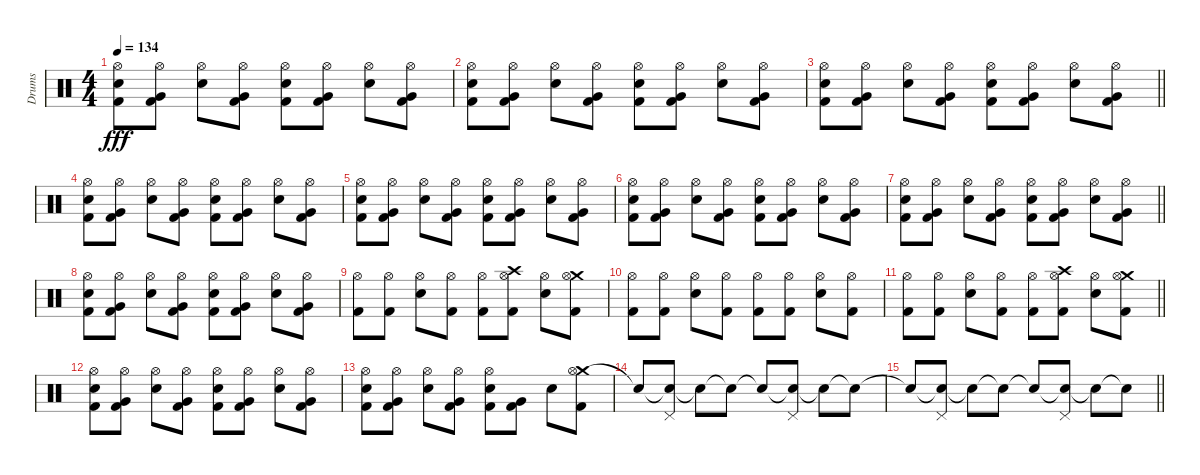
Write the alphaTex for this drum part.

\track ("Drums" "Drums") {instrument percussion}
\staff {score}
\articulation defaults
\ts (4 4)
\tempo 134
\clef neutral
\ks c
("Hi-Hat (open)" "Electric Snare (hit)" "Kick (hit) 2").8{dy fff} ("Hi-Hat (open)" "Very Low Tom (hit)" "Kick (hit) 2").8 ("Hi-Hat (open)" "Electric Snare (hit)").8 ("Hi-Hat (open)" "Very Low Tom (hit)" "Kick (hit) 2").8 ("Hi-Hat (open)" "Electric Snare (hit)" "Kick (hit) 2").8 ("Hi-Hat (open)" "Very Low Tom (hit)" "Kick (hit) 2").8 ("Hi-Hat (open)" "Electric Snare (hit)").8 ("Hi-Hat (open)" "Very Low Tom (hit)" "Kick (hit) 2").8 |
("Hi-Hat (open)" "Electric Snare (hit)" "Kick (hit) 2").8 ("Hi-Hat (open)" "Very Low Tom (hit)" "Kick (hit) 2").8 ("Hi-Hat (open)" "Electric Snare (hit)").8 ("Hi-Hat (open)" "Very Low Tom (hit)" "Kick (hit) 2").8 ("Hi-Hat (open)" "Electric Snare (hit)" "Kick (hit) 2").8 ("Hi-Hat (open)" "Very Low Tom (hit)" "Kick (hit) 2").8 ("Hi-Hat (open)" "Electric Snare (hit)").8 ("Hi-Hat (open)" "Very Low Tom (hit)" "Kick (hit) 2").8 |
\barLineRight lightlight
("Hi-Hat (open)" "Electric Snare (hit)" "Kick (hit) 2").8 ("Hi-Hat (open)" "Very Low Tom (hit)" "Kick (hit) 2").8 ("Hi-Hat (open)" "Electric Snare (hit)").8 ("Hi-Hat (open)" "Very Low Tom (hit)" "Kick (hit) 2").8 ("Hi-Hat (open)" "Electric Snare (hit)" "Kick (hit) 2").8 ("Hi-Hat (open)" "Very Low Tom (hit)" "Kick (hit) 2").8 ("Hi-Hat (open)" "Electric Snare (hit)").8 ("Hi-Hat (open)" "Very Low Tom (hit)" "Kick (hit) 2").8 |
("Hi-Hat (open)" "Electric Snare (hit)" "Kick (hit) 2").8{volume 7} ("Hi-Hat (open)" "Very Low Tom (hit)" "Kick (hit) 2").8 ("Hi-Hat (open)" "Electric Snare (hit)").8 ("Hi-Hat (open)" "Very Low Tom (hit)" "Kick (hit) 2").8 ("Hi-Hat (open)" "Electric Snare (hit)" "Kick (hit) 2").8 ("Hi-Hat (open)" "Very Low Tom (hit)" "Kick (hit) 2").8 ("Hi-Hat (open)" "Electric Snare (hit)").8 ("Hi-Hat (open)" "Very Low Tom (hit)" "Kick (hit) 2").8 |
("Hi-Hat (open)" "Electric Snare (hit)" "Kick (hit) 2").8 ("Hi-Hat (open)" "Very Low Tom (hit)" "Kick (hit) 2").8 ("Hi-Hat (open)" "Electric Snare (hit)").8 ("Hi-Hat (open)" "Very Low Tom (hit)" "Kick (hit) 2").8 ("Hi-Hat (open)" "Electric Snare (hit)" "Kick (hit) 2").8 ("Hi-Hat (open)" "Very Low Tom (hit)" "Kick (hit) 2").8 ("Hi-Hat (open)" "Electric Snare (hit)").8 ("Hi-Hat (open)" "Very Low Tom (hit)" "Kick (hit) 2").8 |
("Hi-Hat (open)" "Electric Snare (hit)" "Kick (hit) 2").8 ("Hi-Hat (open)" "Very Low Tom (hit)" "Kick (hit) 2").8 ("Hi-Hat (open)" "Electric Snare (hit)").8 ("Hi-Hat (open)" "Very Low Tom (hit)" "Kick (hit) 2").8 ("Hi-Hat (open)" "Electric Snare (hit)" "Kick (hit) 2").8 ("Hi-Hat (open)" "Very Low Tom (hit)" "Kick (hit) 2").8 ("Hi-Hat (open)" "Electric Snare (hit)").8 ("Hi-Hat (open)" "Very Low Tom (hit)" "Kick (hit) 2").8 |
\barLineRight lightlight
("Hi-Hat (open)" "Electric Snare (hit)" "Kick (hit) 2").8 ("Hi-Hat (open)" "Very Low Tom (hit)" "Kick (hit) 2").8 ("Hi-Hat (open)" "Electric Snare (hit)").8 ("Hi-Hat (open)" "Very Low Tom (hit)" "Kick (hit) 2").8 ("Hi-Hat (open)" "Electric Snare (hit)" "Kick (hit) 2").8 ("Hi-Hat (open)" "Very Low Tom (hit)" "Kick (hit) 2").8 ("Hi-Hat (open)" "Electric Snare (hit)").8 ("Hi-Hat (open)" "Very Low Tom (hit)" "Kick (hit) 2").8 |
("Hi-Hat (open)" "Electric Snare (hit)" "Kick (hit) 2").8{volume 3} ("Hi-Hat (open)" "Very Low Tom (hit)" "Kick (hit) 2").8 ("Hi-Hat (open)" "Electric Snare (hit)").8 ("Hi-Hat (open)" "Very Low Tom (hit)" "Kick (hit) 2").8 ("Hi-Hat (open)" "Electric Snare (hit)" "Kick (hit) 2").8 ("Hi-Hat (open)" "Very Low Tom (hit)" "Kick (hit) 2").8 ("Hi-Hat (open)" "Electric Snare (hit)").8 ("Hi-Hat (open)" "Very Low Tom (hit)" "Kick (hit) 2").8 |
("Hi-Hat (open)" "Kick (hit) 2").8 ("Hi-Hat (open)" "Kick (hit) 2").8 ("Hi-Hat (open)" "Electric Snare (hit)").8 ("Hi-Hat (open)" "Kick (hit) 2").8 ("Hi-Hat (open)" "Kick (hit) 2").8 ("Crash high (hit)" "Hi-Hat (open)" "Kick (hit) 2").8 ("Hi-Hat (open)" "Electric Snare (hit)").8 ("Crash medium (hit)" "Hi-Hat (open)" "Kick (hit) 2").8 |
("Hi-Hat (open)" "Kick (hit) 2").8 ("Hi-Hat (open)" "Kick (hit) 2").8 ("Hi-Hat (open)" "Electric Snare (hit)").8 ("Hi-Hat (open)" "Kick (hit) 2").8 ("Hi-Hat (open)" "Kick (hit) 2").8 ("Hi-Hat (open)" "Kick (hit) 2").8 ("Hi-Hat (open)" "Electric Snare (hit)").8 ("Hi-Hat (open)" "Kick (hit) 2").8 |
\barLineRight lightlight
("Hi-Hat (open)" "Kick (hit) 2").8 ("Hi-Hat (open)" "Kick (hit) 2").8 ("Hi-Hat (open)" "Electric Snare (hit)").8 ("Hi-Hat (open)" "Kick (hit) 2").8 ("Hi-Hat (open)" "Kick (hit) 2").8 ("Crash high (hit)" "Hi-Hat (open)" "Kick (hit) 2").8 ("Hi-Hat (open)" "Electric Snare (hit)").8 ("Crash medium (hit)" "Hi-Hat (open)" "Kick (hit) 2").8 |
("Hi-Hat (open)" "Electric Snare (hit)" "Kick (hit) 2").8{volume 1} ("Hi-Hat (open)" "Very Low Tom (hit)" "Kick (hit) 2").8 ("Hi-Hat (open)" "Electric Snare (hit)").8 ("Hi-Hat (open)" "Very Low Tom (hit)" "Kick (hit) 2").8 ("Hi-Hat (open)" "Electric Snare (hit)" "Kick (hit) 2").8 ("Hi-Hat (open)" "Very Low Tom (hit)" "Kick (hit) 2").8 ("Hi-Hat (open)" "Electric Snare (hit)").8 ("Hi-Hat (open)" "Very Low Tom (hit)" "Kick (hit) 2").8 |
("Hi-Hat (open)" "Electric Snare (hit)" "Kick (hit) 2").8 ("Hi-Hat (open)" "Very Low Tom (hit)" "Kick (hit) 2").8 ("Hi-Hat (open)" "Electric Snare (hit)").8 ("Hi-Hat (open)" "Very Low Tom (hit)" "Kick (hit) 2").8 ("Hi-Hat (open)" "Electric Snare (hit)" "Kick (hit) 2").8 ("Very Low Tom (hit)" "Kick (hit) 2").8 "Electric Snare (hit)".8 ("Crash medium (hit)" "Hi-Hat (open)" "Kick (hit) 2").8 |
"Snare (hit)"{t}.8 ("Snare (hit)"{t} "Pedal Hi-Hat (hit)").8 "Snare (hit)"{t}.8 "Snare (hit)"{t}.8 "Snare (hit)"{t}.8 ("Snare (hit)"{t} "Pedal Hi-Hat (hit)").8 "Snare (hit)"{t}.8 "Snare (hit)"{t}.8 |
\barLineRight lightlight "Snare (hit)"{t}.8{volume 0}
("Snare (hit)"{t} "Pedal Hi-Hat (hit)").8 "Snare (hit)"{t}.8 "Snare (hit)"{t}.8 "Snare (hit)"{t}.8 ("Snare (hit)"{t} "Pedal Hi-Hat (hit)").8 "Snare (hit)"{t}.8 "Snare (hit)"{t}.8
